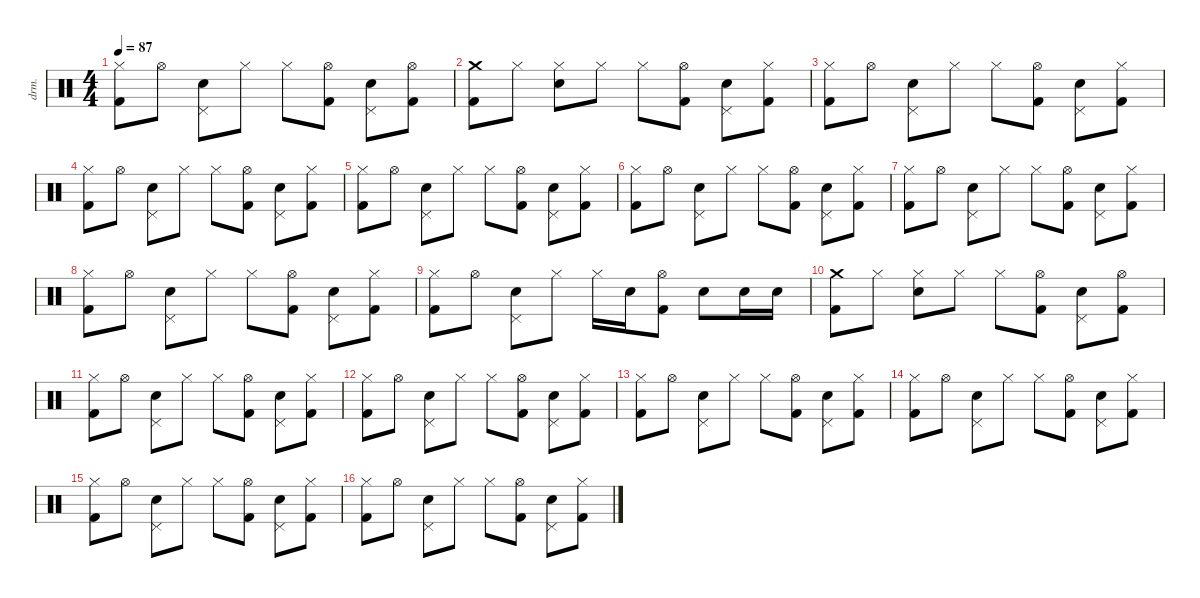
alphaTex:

\defaultSystemsLayout 4
\hideDynamics
\bracketExtendMode nobrackets
\otherSystemsTrackNameOrientation horizontal
\track ("Drums" "drm.") {instrument percussion}
\staff {score}
\articulation defaults
\ts (4 4)
\tempo 87
\clef neutral
\ks c
("Hi-Hat (closed)" "Kick (hit) 2").8{dy f} "Hi-Hat (open)".8 ("Pedal Hi-Hat (hit)" "Snare (hit) 2").8 "Hi-Hat (closed)".8 "Hi-Hat (closed)".8 ("Hi-Hat (open)" "Kick (hit) 2").8 ("Pedal Hi-Hat (hit)" "Snare (hit) 2").8 ("Hi-Hat (open)" "Kick (hit) 2").8 |
("Crash medium (hit)" "Kick (hit) 2").8 "Hi-Hat (closed)".8 ("Hi-Hat (closed)" "Snare (hit) 2").8 "Hi-Hat (closed)".8 "Hi-Hat (closed)".8 ("Hi-Hat (open)" "Kick (hit) 2").8 ("Pedal Hi-Hat (hit)" "Snare (hit) 2").8 ("Hi-Hat (closed)" "Kick (hit) 2").8 |
("Hi-Hat (closed)" "Kick (hit) 2").8 "Hi-Hat (open)".8 ("Pedal Hi-Hat (hit)" "Snare (hit) 2").8 "Hi-Hat (closed)".8 "Hi-Hat (closed)".8 ("Hi-Hat (open)" "Kick (hit) 2").8 ("Pedal Hi-Hat (hit)" "Snare (hit) 2").8 ("Hi-Hat (closed)" "Kick (hit) 2").8 |
("Hi-Hat (closed)" "Kick (hit) 2").8 "Hi-Hat (open)".8 ("Pedal Hi-Hat (hit)" "Snare (hit) 2").8 "Hi-Hat (closed)".8 "Hi-Hat (closed)".8 ("Hi-Hat (open)" "Kick (hit) 2").8 ("Pedal Hi-Hat (hit)" "Snare (hit) 2").8 ("Hi-Hat (closed)" "Kick (hit) 2").8 |
("Hi-Hat (closed)" "Kick (hit) 2").8 "Hi-Hat (open)".8 ("Pedal Hi-Hat (hit)" "Snare (hit) 2").8 "Hi-Hat (closed)".8 "Hi-Hat (closed)".8 ("Hi-Hat (open)" "Kick (hit) 2").8 ("Pedal Hi-Hat (hit)" "Snare (hit) 2").8 ("Hi-Hat (closed)" "Kick (hit) 2").8 |
("Hi-Hat (closed)" "Kick (hit) 2").8 "Hi-Hat (open)".8 ("Pedal Hi-Hat (hit)" "Snare (hit) 2").8 "Hi-Hat (closed)".8 "Hi-Hat (closed)".8 ("Hi-Hat (open)" "Kick (hit) 2").8 ("Pedal Hi-Hat (hit)" "Snare (hit) 2").8 ("Hi-Hat (closed)" "Kick (hit) 2").8 |
("Hi-Hat (closed)" "Kick (hit) 2").8 "Hi-Hat (open)".8 ("Pedal Hi-Hat (hit)" "Snare (hit) 2").8 "Hi-Hat (closed)".8 "Hi-Hat (closed)".8 ("Hi-Hat (open)" "Kick (hit) 2").8 ("Pedal Hi-Hat (hit)" "Snare (hit) 2").8 ("Hi-Hat (closed)" "Kick (hit) 2").8 |
("Hi-Hat (closed)" "Kick (hit) 2").8 "Hi-Hat (open)".8 ("Pedal Hi-Hat (hit)" "Snare (hit) 2").8 "Hi-Hat (closed)".8 "Hi-Hat (closed)".8 ("Hi-Hat (open)" "Kick (hit) 2").8 ("Pedal Hi-Hat (hit)" "Snare (hit) 2").8 ("Hi-Hat (closed)" "Kick (hit) 2").8 |
("Hi-Hat (closed)" "Kick (hit) 2").8 "Hi-Hat (open)".8 ("Pedal Hi-Hat (hit)" "Snare (hit) 2").8 "Hi-Hat (closed)".8 "Hi-Hat (closed)".16 "Snare (hit) 2".16{dy mf} ("Hi-Hat (open)" "Kick (hit) 2").8{dy f} "Snare (hit) 2".8 "Snare (hit) 2".16 "Snare (hit) 2".16 |
("Crash medium (hit)" "Kick (hit) 2").8 "Hi-Hat (closed)".8 ("Hi-Hat (closed)" "Snare (hit) 2").8 "Hi-Hat (closed)".8 "Hi-Hat (closed)".8 ("Hi-Hat (open)" "Kick (hit) 2").8 ("Pedal Hi-Hat (hit)" "Snare (hit) 2").8 ("Hi-Hat (open)" "Kick (hit) 2").8 |
("Hi-Hat (closed)" "Kick (hit) 2").8 "Hi-Hat (open)".8 ("Pedal Hi-Hat (hit)" "Snare (hit) 2").8 "Hi-Hat (closed)".8 "Hi-Hat (closed)".8 ("Hi-Hat (open)" "Kick (hit) 2").8 ("Pedal Hi-Hat (hit)" "Snare (hit) 2").8 ("Hi-Hat (closed)" "Kick (hit) 2").8 |
("Hi-Hat (closed)" "Kick (hit) 2").8 "Hi-Hat (open)".8 ("Pedal Hi-Hat (hit)" "Snare (hit) 2").8 "Hi-Hat (closed)".8 "Hi-Hat (closed)".8 ("Hi-Hat (open)" "Kick (hit) 2").8 ("Pedal Hi-Hat (hit)" "Snare (hit) 2").8 ("Hi-Hat (closed)" "Kick (hit) 2").8 |
("Hi-Hat (closed)" "Kick (hit) 2").8 "Hi-Hat (open)".8 ("Pedal Hi-Hat (hit)" "Snare (hit) 2").8 "Hi-Hat (closed)".8 "Hi-Hat (closed)".8 ("Hi-Hat (open)" "Kick (hit) 2").8 ("Pedal Hi-Hat (hit)" "Snare (hit) 2").8 ("Hi-Hat (closed)" "Kick (hit) 2").8 |
("Hi-Hat (closed)" "Kick (hit) 2").8 "Hi-Hat (open)".8 ("Pedal Hi-Hat (hit)" "Snare (hit) 2").8 "Hi-Hat (closed)".8 "Hi-Hat (closed)".8 ("Hi-Hat (open)" "Kick (hit) 2").8 ("Pedal Hi-Hat (hit)" "Snare (hit) 2").8 ("Hi-Hat (closed)" "Kick (hit) 2").8 |
("Hi-Hat (closed)" "Kick (hit) 2").8 "Hi-Hat (open)".8 ("Pedal Hi-Hat (hit)" "Snare (hit) 2").8 "Hi-Hat (closed)".8 "Hi-Hat (closed)".8 ("Hi-Hat (open)" "Kick (hit) 2").8 ("Pedal Hi-Hat (hit)" "Snare (hit) 2").8 ("Hi-Hat (closed)" "Kick (hit) 2").8 |
("Hi-Hat (closed)" "Kick (hit) 2").8 "Hi-Hat (open)".8 ("Pedal Hi-Hat (hit)" "Snare (hit) 2").8 "Hi-Hat (closed)".8 "Hi-Hat (closed)".8 ("Hi-Hat (open)" "Kick (hit) 2").8 ("Pedal Hi-Hat (hit)" "Snare (hit) 2").8 ("Hi-Hat (closed)" "Kick (hit) 2").8
